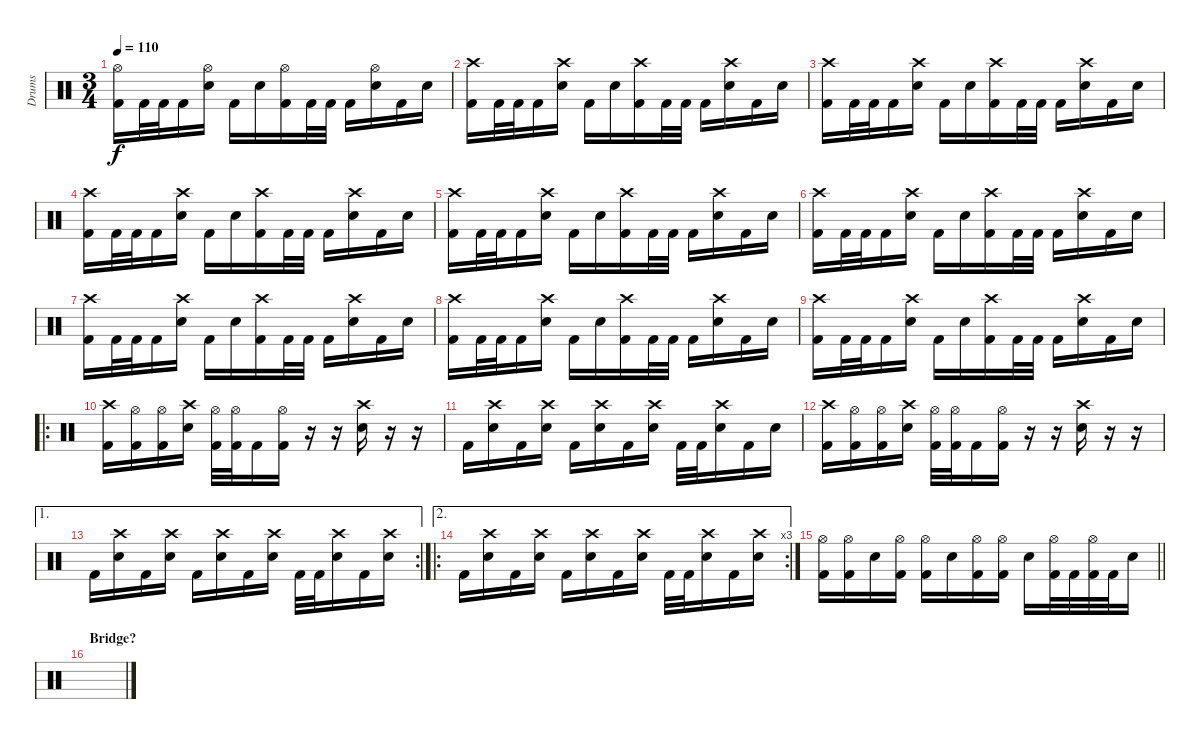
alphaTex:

\track ("Drums" "Drums") {instrument percussion}
\staff {score}
\articulation defaults
\ts (3 4)
\tempo 110
\clef neutral
\ks c
("Hi-Hat (open)" "Kick (hit) 2").16{dy f} "Kick (hit) 2".32 "Kick (hit) 2".32 "Kick (hit) 2".16 ("Hi-Hat (open)" "Electric Snare (hit)").16 "Kick (hit) 2".16 "Electric Snare (hit)".16 ("Hi-Hat (open)" "Kick (hit) 2").16 "Kick (hit) 2".32 "Kick (hit) 2".32 "Kick (hit) 2".16 ("Hi-Hat (open)" "Electric Snare (hit)").16 "Kick (hit) 2".16 "Electric Snare (hit)".16 |
("Crash high (hit)" "Kick (hit) 2").16 "Kick (hit) 2".32 "Kick (hit) 2".32 "Kick (hit) 2".16 ("Crash high (hit)" "Electric Snare (hit)").16 "Kick (hit) 2".16 "Electric Snare (hit)".16 ("Crash high (hit)" "Kick (hit) 2").16 "Kick (hit) 2".32 "Kick (hit) 2".32 "Kick (hit) 2".16 ("Crash high (hit)" "Electric Snare (hit)").16 "Kick (hit) 2".16 "Electric Snare (hit)".16 |
("Crash high (hit)" "Kick (hit) 2").16 "Kick (hit) 2".32 "Kick (hit) 2".32 "Kick (hit) 2".16 ("Crash high (hit)" "Electric Snare (hit)").16 "Kick (hit) 2".16 "Electric Snare (hit)".16 ("Crash high (hit)" "Kick (hit) 2").16 "Kick (hit) 2".32 "Kick (hit) 2".32 "Kick (hit) 2".16 ("Crash high (hit)" "Electric Snare (hit)").16 "Kick (hit) 2".16 "Electric Snare (hit)".16 |
("Crash high (hit)" "Kick (hit) 2").16 "Kick (hit) 2".32 "Kick (hit) 2".32 "Kick (hit) 2".16 ("Crash high (hit)" "Electric Snare (hit)").16 "Kick (hit) 2".16 "Electric Snare (hit)".16 ("Crash high (hit)" "Kick (hit) 2").16 "Kick (hit) 2".32 "Kick (hit) 2".32 "Kick (hit) 2".16 ("Crash high (hit)" "Electric Snare (hit)").16 "Kick (hit) 2".16 "Electric Snare (hit)".16 |
("Crash high (hit)" "Kick (hit) 2").16 "Kick (hit) 2".32 "Kick (hit) 2".32 "Kick (hit) 2".16 ("Crash high (hit)" "Electric Snare (hit)").16 "Kick (hit) 2".16 "Electric Snare (hit)".16 ("Crash high (hit)" "Kick (hit) 2").16 "Kick (hit) 2".32 "Kick (hit) 2".32 "Kick (hit) 2".16 ("Crash high (hit)" "Electric Snare (hit)").16 "Kick (hit) 2".16 "Electric Snare (hit)".16 |
("Crash high (hit)" "Kick (hit) 2").16 "Kick (hit) 2".32 "Kick (hit) 2".32 "Kick (hit) 2".16 ("Crash high (hit)" "Electric Snare (hit)").16 "Kick (hit) 2".16 "Electric Snare (hit)".16 ("Crash high (hit)" "Kick (hit) 2").16 "Kick (hit) 2".32 "Kick (hit) 2".32 "Kick (hit) 2".16 ("Crash high (hit)" "Electric Snare (hit)").16 "Kick (hit) 2".16 "Electric Snare (hit)".16 |
("Crash high (hit)" "Kick (hit) 2").16 "Kick (hit) 2".32 "Kick (hit) 2".32 "Kick (hit) 2".16 ("Crash high (hit)" "Electric Snare (hit)").16 "Kick (hit) 2".16 "Electric Snare (hit)".16 ("Crash high (hit)" "Kick (hit) 2").16 "Kick (hit) 2".32 "Kick (hit) 2".32 "Kick (hit) 2".16 ("Crash high (hit)" "Electric Snare (hit)").16 "Kick (hit) 2".16 "Electric Snare (hit)".16 |
("Crash high (hit)" "Kick (hit) 2").16 "Kick (hit) 2".32 "Kick (hit) 2".32 "Kick (hit) 2".16 ("Crash high (hit)" "Electric Snare (hit)").16 "Kick (hit) 2".16 "Electric Snare (hit)".16 ("Crash high (hit)" "Kick (hit) 2").16 "Kick (hit) 2".32 "Kick (hit) 2".32 "Kick (hit) 2".16 ("Crash high (hit)" "Electric Snare (hit)").16 "Kick (hit) 2".16 "Electric Snare (hit)".16 |
("Crash high (hit)" "Kick (hit) 2").16 "Kick (hit) 2".32 "Kick (hit) 2".32 "Kick (hit) 2".16 ("Crash high (hit)" "Electric Snare (hit)").16 "Kick (hit) 2".16 "Electric Snare (hit)".16 ("Crash high (hit)" "Kick (hit) 2").16 "Kick (hit) 2".32 "Kick (hit) 2".32 "Kick (hit) 2".16 ("Crash high (hit)" "Electric Snare (hit)").16 "Kick (hit) 2".16 "Electric Snare (hit)".16 |
\ro
("Crash high (hit)" "Kick (hit) 2").16 ("Hi-Hat (open)" "Kick (hit) 2").16 ("Hi-Hat (open)" "Kick (hit) 2").16 ("Crash high (hit)" "Electric Snare (hit)").16 ("Hi-Hat (open)" "Kick (hit) 2").32 ("Hi-Hat (open)" "Kick (hit) 2").32 "Kick (hit) 2".16 ("Hi-Hat (open)" "Kick (hit) 2").16 r.16 r.16 ("Crash high (hit)" "Electric Snare (hit)").16 r.16 r.16 |
"Kick (hit) 2".16 ("Crash high (hit)" "Electric Snare (hit)").16 "Kick (hit) 2".16 ("Crash high (hit)" "Electric Snare (hit)").16 "Kick (hit) 2".16 ("Crash high (hit)" "Electric Snare (hit)").16 "Kick (hit) 2".16 ("Crash high (hit)" "Electric Snare (hit)").16 "Kick (hit) 2".32 "Kick (hit) 2".32 ("Crash high (hit)" "Electric Snare (hit)").16 "Kick (hit) 2".16 "Electric Snare (hit)".16 |
("Crash high (hit)" "Kick (hit) 2").16 ("Hi-Hat (open)" "Kick (hit) 2").16 ("Hi-Hat (open)" "Kick (hit) 2").16 ("Crash high (hit)" "Electric Snare (hit)").16 ("Hi-Hat (open)" "Kick (hit) 2").32 ("Hi-Hat (open)" "Kick (hit) 2").32 "Kick (hit) 2".16 ("Hi-Hat (open)" "Kick (hit) 2").16 r.16 r.16 ("Crash high (hit)" "Electric Snare (hit)").16 r.16 r.16 |
\ae 1
\rc 2 "Kick (hit) 2".16
("Crash high (hit)" "Electric Snare (hit)").16 "Kick (hit) 2".16 ("Crash high (hit)" "Electric Snare (hit)").16 "Kick (hit) 2".16 ("Crash high (hit)" "Electric Snare (hit)").16 "Kick (hit) 2".16 ("Crash high (hit)" "Electric Snare (hit)").16 "Kick (hit) 2".32 "Kick (hit) 2".32 ("Crash high (hit)" "Electric Snare (hit)").16 "Kick (hit) 2".16 ("Crash high (hit)" "Electric Snare (hit)").16 |
\ae 2
\ro
\rc 3 "Kick (hit) 2".16
("Crash high (hit)" "Electric Snare (hit)").16 "Kick (hit) 2".16 ("Crash high (hit)" "Electric Snare (hit)").16 "Kick (hit) 2".16 ("Crash high (hit)" "Electric Snare (hit)").16 "Kick (hit) 2".16 ("Crash high (hit)" "Electric Snare (hit)").16 "Kick (hit) 2".32 "Kick (hit) 2".32 ("Crash high (hit)" "Electric Snare (hit)").16 "Kick (hit) 2".16 ("Crash high (hit)" "Electric Snare (hit)").16 |
\barLineRight lightlight
("Hi-Hat (open)" "Kick (hit) 2").16 ("Hi-Hat (open)" "Kick (hit) 2").16 "Electric Snare (hit)".16 ("Hi-Hat (open)" "Kick (hit) 2").16 ("Hi-Hat (open)" "Kick (hit) 2").16 "Electric Snare (hit)".16 ("Hi-Hat (open)" "Kick (hit) 2").16 ("Hi-Hat (open)" "Kick (hit) 2").16 "Electric Snare (hit)".16 ("Hi-Hat (open)" "Kick (hit) 2").32 "Kick (hit) 2".32 ("Hi-Hat (open)" "Kick (hit) 2").32 "Kick (hit) 2".32 "Electric Snare (hit)".16 |
\section ("" "Bridge?")
